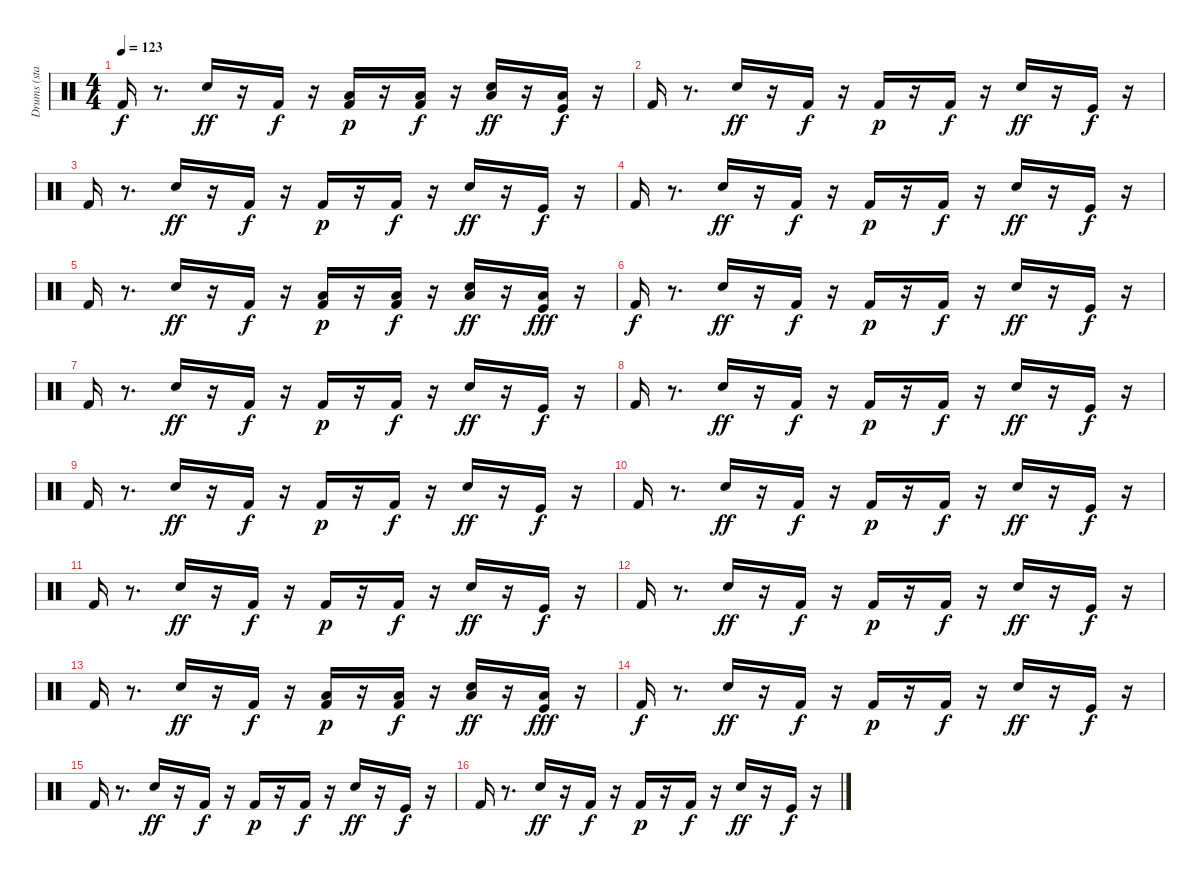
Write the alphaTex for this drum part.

\track ("Drums (standard set)" "Drums (sta") {instrument percussion}
\staff {score}
\articulation defaults
\ts (4 4)
\tempo 123
\clef neutral
\ks c "Kick (hit) 2".16{dy f}
r.8{d} "Snare (hit) 2".16{dy ff} r.16 "Kick (hit) 2".16{dy f} r.16 ("Kick (hit) 2" "Low Tom (hit)").16{dy p} r.16 ("Kick (hit) 2" "Low Tom (hit)").16{dy f} r.16 ("Snare (hit) 2" "Low Tom (hit)").16{dy ff} r.16 ("Kick (hit)" "Low Tom (hit)").16{dy f} r.16 |
"Kick (hit) 2".16 r.8{d} "Snare (hit) 2".16{dy ff} r.16 "Kick (hit) 2".16{dy f} r.16 "Kick (hit) 2".16{dy p} r.16 "Kick (hit) 2".16{dy f} r.16 "Snare (hit) 2".16{dy ff} r.16 "Kick (hit)".16{dy f} r.16 |
"Kick (hit) 2".16 r.8{d} "Snare (hit) 2".16{dy ff} r.16 "Kick (hit) 2".16{dy f} r.16 "Kick (hit) 2".16{dy p} r.16 "Kick (hit) 2".16{dy f} r.16 "Snare (hit) 2".16{dy ff} r.16 "Kick (hit)".16{dy f} r.16 |
"Kick (hit) 2".16 r.8{d} "Snare (hit) 2".16{dy ff} r.16 "Kick (hit) 2".16{dy f} r.16 "Kick (hit) 2".16{dy p} r.16 "Kick (hit) 2".16{dy f} r.16 "Snare (hit) 2".16{dy ff} r.16 "Kick (hit)".16{dy f} r.16 |
"Kick (hit) 2".16 r.8{d} "Snare (hit) 2".16{dy ff} r.16 "Kick (hit) 2".16{dy f} r.16 ("Kick (hit) 2" "Low Tom (hit)").16{dy p} r.16 ("Kick (hit) 2" "Low Tom (hit)").16{dy f} r.16 ("Snare (hit) 2" "Low Tom (hit)").16{dy ff} r.16 ("Kick (hit)" "Low Tom (hit)").16{dy fff} r.16 |
"Kick (hit) 2".16{dy f} r.8{d} "Snare (hit) 2".16{dy ff} r.16 "Kick (hit) 2".16{dy f} r.16 "Kick (hit) 2".16{dy p} r.16 "Kick (hit) 2".16{dy f} r.16 "Snare (hit) 2".16{dy ff} r.16 "Kick (hit)".16{dy f} r.16 |
"Kick (hit) 2".16 r.8{d} "Snare (hit) 2".16{dy ff} r.16 "Kick (hit) 2".16{dy f} r.16 "Kick (hit) 2".16{dy p} r.16 "Kick (hit) 2".16{dy f} r.16 "Snare (hit) 2".16{dy ff} r.16 "Kick (hit)".16{dy f} r.16 |
"Kick (hit) 2".16 r.8{d} "Snare (hit) 2".16{dy ff} r.16 "Kick (hit) 2".16{dy f} r.16 "Kick (hit) 2".16{dy p} r.16 "Kick (hit) 2".16{dy f} r.16 "Snare (hit) 2".16{dy ff} r.16 "Kick (hit)".16{dy f} r.16 |
"Kick (hit) 2".16 r.8{d} "Snare (hit) 2".16{dy ff} r.16 "Kick (hit) 2".16{dy f} r.16 "Kick (hit) 2".16{dy p} r.16 "Kick (hit) 2".16{dy f} r.16 "Snare (hit) 2".16{dy ff} r.16 "Kick (hit)".16{dy f} r.16 |
"Kick (hit) 2".16 r.8{d} "Snare (hit) 2".16{dy ff} r.16 "Kick (hit) 2".16{dy f} r.16 "Kick (hit) 2".16{dy p} r.16 "Kick (hit) 2".16{dy f} r.16 "Snare (hit) 2".16{dy ff} r.16 "Kick (hit)".16{dy f} r.16 |
"Kick (hit) 2".16 r.8{d} "Snare (hit) 2".16{dy ff} r.16 "Kick (hit) 2".16{dy f} r.16 "Kick (hit) 2".16{dy p} r.16 "Kick (hit) 2".16{dy f} r.16 "Snare (hit) 2".16{dy ff} r.16 "Kick (hit)".16{dy f} r.16 |
"Kick (hit) 2".16 r.8{d} "Snare (hit) 2".16{dy ff} r.16 "Kick (hit) 2".16{dy f} r.16 "Kick (hit) 2".16{dy p} r.16 "Kick (hit) 2".16{dy f} r.16 "Snare (hit) 2".16{dy ff} r.16 "Kick (hit)".16{dy f} r.16 |
"Kick (hit) 2".16 r.8{d} "Snare (hit) 2".16{dy ff} r.16 "Kick (hit) 2".16{dy f} r.16 ("Kick (hit) 2" "Low Tom (hit)").16{dy p} r.16 ("Kick (hit) 2" "Low Tom (hit)").16{dy f} r.16 ("Snare (hit) 2" "Low Tom (hit)").16{dy ff} r.16 ("Kick (hit)" "Low Tom (hit)").16{dy fff} r.16 |
"Kick (hit) 2".16{dy f} r.8{d} "Snare (hit) 2".16{dy ff} r.16 "Kick (hit) 2".16{dy f} r.16 "Kick (hit) 2".16{dy p} r.16 "Kick (hit) 2".16{dy f} r.16 "Snare (hit) 2".16{dy ff} r.16 "Kick (hit)".16{dy f} r.16 |
"Kick (hit) 2".16 r.8{d} "Snare (hit) 2".16{dy ff} r.16 "Kick (hit) 2".16{dy f} r.16 "Kick (hit) 2".16{dy p} r.16 "Kick (hit) 2".16{dy f} r.16 "Snare (hit) 2".16{dy ff} r.16 "Kick (hit)".16{dy f} r.16 |
"Kick (hit) 2".16 r.8{d} "Snare (hit) 2".16{dy ff} r.16 "Kick (hit) 2".16{dy f} r.16 "Kick (hit) 2".16{dy p} r.16 "Kick (hit) 2".16{dy f} r.16 "Snare (hit) 2".16{dy ff} r.16 "Kick (hit)".16{dy f} r.16
